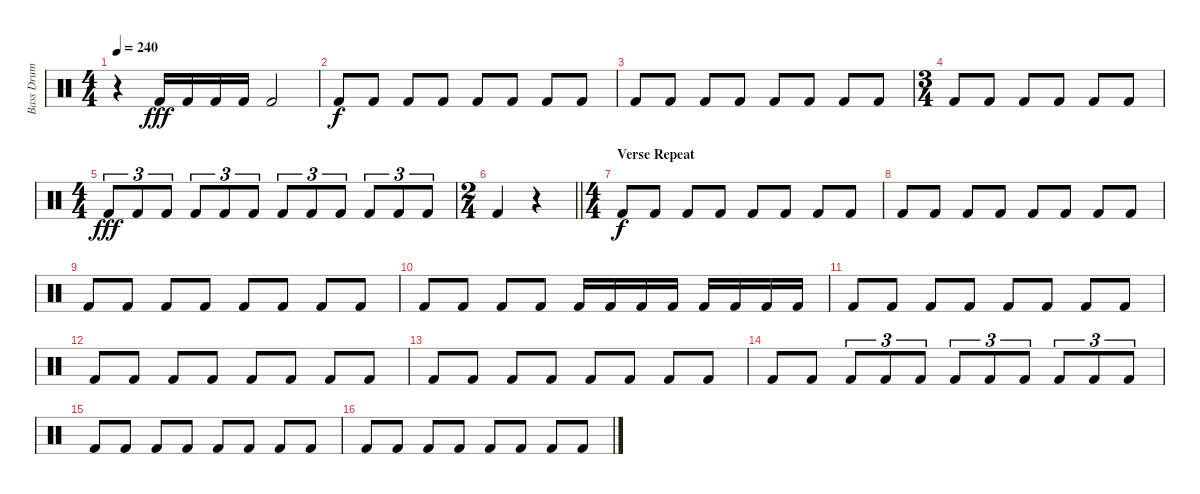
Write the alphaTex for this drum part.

\track ("Bass Drum" "Bass Drum") {instrument percussion}
\staff {score}
\articulation defaults
\ts (4 4)
\tempo 240
\clef neutral
\ks c
r.4{dy f} "Kick (hit) 2".16{dy fff} "Kick (hit) 2".16 "Kick (hit) 2".16 "Kick (hit) 2".16 "Kick (hit) 2".2 |
"Kick (hit) 2".8{dy f} "Kick (hit) 2".8 "Kick (hit) 2".8 "Kick (hit) 2".8 "Kick (hit) 2".8 "Kick (hit) 2".8 "Kick (hit) 2".8 "Kick (hit) 2".8 |
"Kick (hit) 2".8 "Kick (hit) 2".8 "Kick (hit) 2".8 "Kick (hit) 2".8 "Kick (hit) 2".8 "Kick (hit) 2".8 "Kick (hit) 2".8 "Kick (hit) 2".8 |
\ts (3 4)
"Kick (hit) 2".8 "Kick (hit) 2".8 "Kick (hit) 2".8 "Kick (hit) 2".8 "Kick (hit) 2".8 "Kick (hit) 2".8 |
\ts (4 4)
"Kick (hit) 2".8{tu (3 2) dy fff} "Kick (hit) 2".8{tu (3 2)} "Kick (hit) 2".8{tu (3 2)} "Kick (hit) 2".8{tu (3 2)} "Kick (hit) 2".8{tu (3 2)} "Kick (hit) 2".8{tu (3 2)} "Kick (hit) 2".8{tu (3 2)} "Kick (hit) 2".8{tu (3 2)} "Kick (hit) 2".8{tu (3 2)} "Kick (hit) 2".8{tu (3 2)} "Kick (hit) 2".8{tu (3 2)} "Kick (hit) 2".8{tu (3 2)} |
\ts (2 4)
\barLineRight lightlight "Kick (hit) 2".4
r.4 |
\ts (4 4)
\section ("" "Verse Repeat")
"Kick (hit) 2".8{dy f} "Kick (hit) 2".8 "Kick (hit) 2".8 "Kick (hit) 2".8 "Kick (hit) 2".8 "Kick (hit) 2".8 "Kick (hit) 2".8 "Kick (hit) 2".8 |
"Kick (hit) 2".8 "Kick (hit) 2".8 "Kick (hit) 2".8 "Kick (hit) 2".8 "Kick (hit) 2".8 "Kick (hit) 2".8 "Kick (hit) 2".8 "Kick (hit) 2".8 |
"Kick (hit) 2".8 "Kick (hit) 2".8 "Kick (hit) 2".8 "Kick (hit) 2".8 "Kick (hit) 2".8 "Kick (hit) 2".8 "Kick (hit) 2".8 "Kick (hit) 2".8 |
"Kick (hit) 2".8 "Kick (hit) 2".8 "Kick (hit) 2".8 "Kick (hit) 2".8 "Kick (hit) 2".16 "Kick (hit) 2".16 "Kick (hit) 2".16 "Kick (hit) 2".16 "Kick (hit) 2".16 "Kick (hit) 2".16 "Kick (hit) 2".16 "Kick (hit) 2".16 |
"Kick (hit) 2".8 "Kick (hit) 2".8 "Kick (hit) 2".8 "Kick (hit) 2".8 "Kick (hit) 2".8 "Kick (hit) 2".8 "Kick (hit) 2".8 "Kick (hit) 2".8 |
"Kick (hit) 2".8 "Kick (hit) 2".8 "Kick (hit) 2".8 "Kick (hit) 2".8 "Kick (hit) 2".8 "Kick (hit) 2".8 "Kick (hit) 2".8 "Kick (hit) 2".8 |
"Kick (hit) 2".8 "Kick (hit) 2".8 "Kick (hit) 2".8 "Kick (hit) 2".8 "Kick (hit) 2".8 "Kick (hit) 2".8 "Kick (hit) 2".8 "Kick (hit) 2".8 |
"Kick (hit) 2".8 "Kick (hit) 2".8 "Kick (hit) 2".8{tu (3 2)} "Kick (hit) 2".8{tu (3 2)} "Kick (hit) 2".8{tu (3 2)} "Kick (hit) 2".8{tu (3 2)} "Kick (hit) 2".8{tu (3 2)} "Kick (hit) 2".8{tu (3 2)} "Kick (hit) 2".8{tu (3 2)} "Kick (hit) 2".8{tu (3 2)} "Kick (hit) 2".8{tu (3 2)} |
"Kick (hit) 2".8 "Kick (hit) 2".8 "Kick (hit) 2".8 "Kick (hit) 2".8 "Kick (hit) 2".8 "Kick (hit) 2".8 "Kick (hit) 2".8 "Kick (hit) 2".8 |
"Kick (hit) 2".8 "Kick (hit) 2".8 "Kick (hit) 2".8 "Kick (hit) 2".8 "Kick (hit) 2".8 "Kick (hit) 2".8 "Kick (hit) 2".8 "Kick (hit) 2".8
